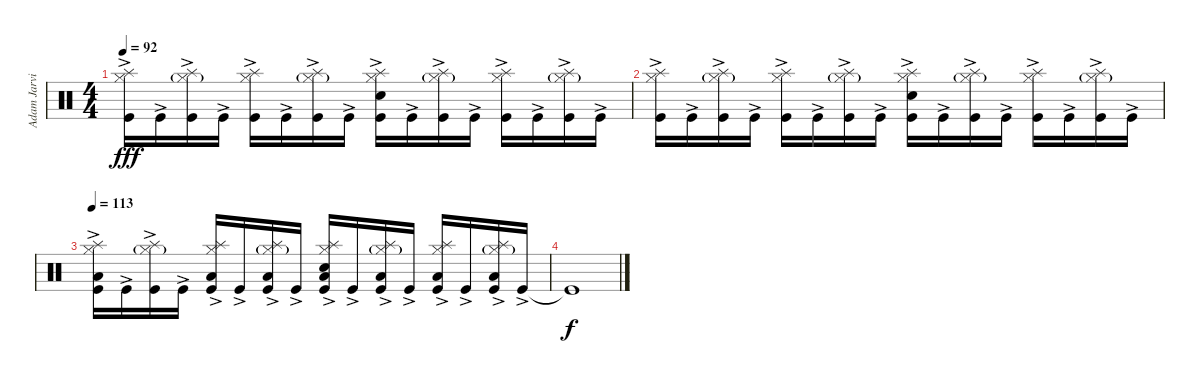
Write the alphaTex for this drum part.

\track ("Adam Jarvis - Drums" "Adam Jarvi") {instrument percussion}
\staff {score}
\articulation defaults
\ts (4 4)
\tempo 92
\clef neutral
\ks c
("Kick (hit)"{ac} "Hi-Hat (closed)" "Splash (hit)"{ac}).16{dy fff} "Kick (hit)"{ac}.16 ("Kick (hit)"{ac} "Hi-Hat (closed)"{g} "Splash (hit)"{ac}).16 "Kick (hit)"{ac}.16 ("Kick (hit)"{ac} "Hi-Hat (closed)" "Splash (hit)"{ac}).16 "Kick (hit)"{ac}.16 ("Kick (hit)"{ac} "Hi-Hat (closed)"{g} "Splash (hit)"{ac}).16 "Kick (hit)"{ac}.16 ("Kick (hit)"{ac} "Electric Snare (hit)"{ac} "Hi-Hat (closed)" "Splash (hit)"{ac}).16 "Kick (hit)"{ac}.16 ("Kick (hit)"{ac} "Hi-Hat (closed)"{g} "Splash (hit)"{ac}).16 "Kick (hit)"{ac}.16 ("Kick (hit)"{ac} "Hi-Hat (closed)" "Splash (hit)"{ac}).16 "Kick (hit)"{ac}.16 ("Kick (hit)"{ac} "Hi-Hat (closed)"{g} "Splash (hit)"{ac}).16 "Kick (hit)"{ac}.16 |
("Kick (hit)"{ac} "Hi-Hat (closed)" "Splash (hit)"{ac}).16 "Kick (hit)"{ac}.16 ("Kick (hit)"{ac} "Hi-Hat (closed)"{g} "Splash (hit)"{ac}).16 "Kick (hit)"{ac}.16 ("Kick (hit)"{ac} "Hi-Hat (closed)" "Splash (hit)"{ac}).16 "Kick (hit)"{ac}.16 ("Kick (hit)"{ac} "Hi-Hat (closed)"{g} "Splash (hit)"{ac}).16 "Kick (hit)"{ac}.16 ("Kick (hit)"{ac} "Electric Snare (hit)"{ac} "Hi-Hat (closed)" "Splash (hit)"{ac}).16 "Kick (hit)"{ac}.16 ("Kick (hit)"{ac} "Hi-Hat (closed)"{g} "Splash (hit)"{ac}).16 "Kick (hit)"{ac}.16 ("Kick (hit)"{ac} "Hi-Hat (closed)" "Splash (hit)"{ac}).16 "Kick (hit)"{ac}.16 ("Kick (hit)"{ac} "Hi-Hat (closed)"{g} "Splash (hit)"{ac}).16 "Kick (hit)"{ac}.16 |
\tempo 113
("Kick (hit)"{ac} "Hi-Hat (closed)" "Low Floor Tom (hit)"{ac} "Splash (hit)"{ac}).16 "Kick (hit)"{ac}.16 ("Kick (hit)"{ac} "Hi-Hat (closed)"{g} "Splash (hit)"{ac}).16 "Kick (hit)"{ac}.16 ("Kick (hit)"{ac} "Hi-Hat (closed)" "Low Floor Tom (hit)"{ac} "Splash (hit)"{ac}).16 "Kick (hit)"{ac}.16 ("Kick (hit)"{ac} "Hi-Hat (closed)"{g} "Low Floor Tom (hit)"{ac} "Splash (hit)"{ac}).16 "Kick (hit)"{ac}.16 ("Kick (hit)"{ac} "Electric Snare (hit)"{ac} "Hi-Hat (closed)" "Low Floor Tom (hit)"{ac} "Splash (hit)"{ac}).16 "Kick (hit)"{ac}.16 ("Kick (hit)"{ac} "Hi-Hat (closed)"{g} "Low Floor Tom (hit)"{ac} "Splash (hit)"{ac}).16 "Kick (hit)"{ac}.16 ("Kick (hit)"{ac} "Hi-Hat (closed)" "Low Floor Tom (hit)"{ac} "Splash (hit)"{ac}).16 "Kick (hit)"{ac}.16 ("Kick (hit)"{ac} "Hi-Hat (closed)"{g} "Low Floor Tom (hit)"{ac} "Splash (hit)"{ac}).16 "Kick (hit)"{ac}.16 |
"Kick (hit)"{t}.1{dy f}
